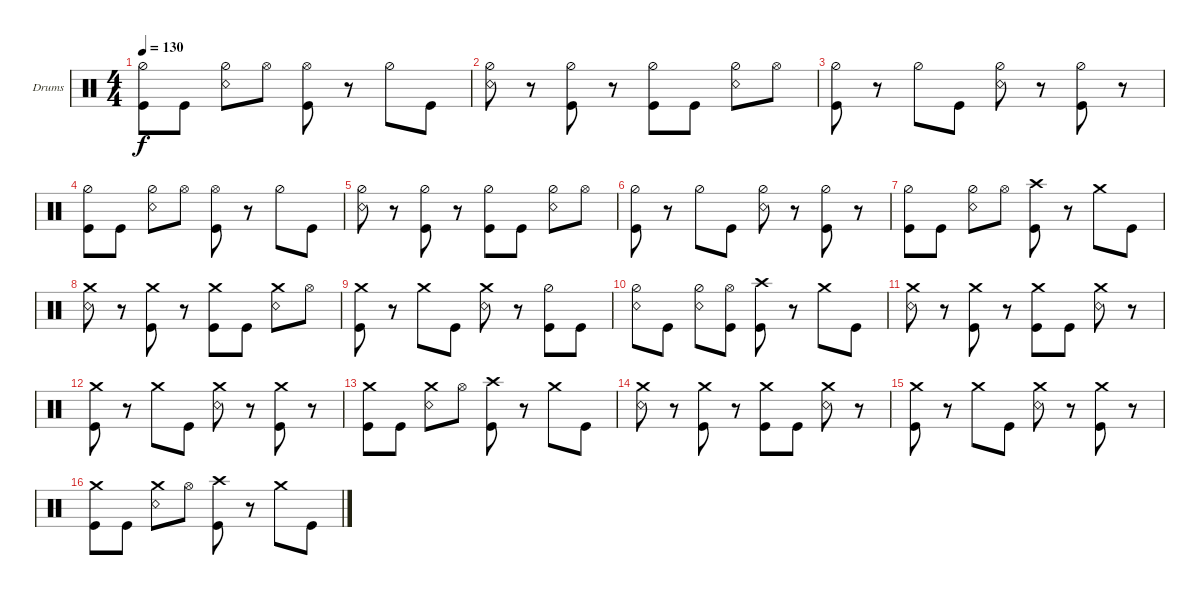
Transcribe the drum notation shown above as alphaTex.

\bracketExtendMode groupsimilarinstruments
\firstSystemTrackNameOrientation horizontal
\otherSystemsTrackNameOrientation horizontal
\track ("Drumkit" "Drums") {instrument percussion}
\staff {score}
\articulation defaults
\ts (4 4)
\tempo 130
\clef neutral
\scale
0.333333
\ks c
("Hi-Hat (half)" "Kick (hit)").8{dy f} "Kick (hit)".8 ("Hi-Hat (half)" "Snare (rim shot)").8 "Hi-Hat (open)".8 ("Hi-Hat (open)" "Kick (hit)").8 r.8 "Hi-Hat (half)".8 "Kick (hit)".8 |
\scale
0.333333 ("Hi-Hat (half)" "Snare (rim shot)").8 r.8 ("Hi-Hat (half)" "Kick (hit)").8 r.8 ("Hi-Hat (half)" "Kick (hit)").8 "Kick (hit)".8 ("Hi-Hat (half)" "Snare (rim shot)").8 "Hi-Hat (open)".8 |
\scale
0.333333 ("Kick (hit)" "Hi-Hat (half)").8 r.8 "Hi-Hat (half)".8 "Kick (hit)".8 ("Hi-Hat (half)" "Snare (rim shot)").8 r.8 ("Hi-Hat (half)" "Kick (hit)").8 r.8 |
\scale
0.333333 ("Hi-Hat (half)" "Kick (hit)").8 "Kick (hit)".8 ("Hi-Hat (half)" "Snare (rim shot)").8 "Hi-Hat (open)".8 ("Hi-Hat (open)" "Kick (hit)").8 r.8 "Hi-Hat (half)".8 "Kick (hit)".8 |
\scale
0.333333 ("Hi-Hat (half)" "Snare (rim shot)").8 r.8 ("Hi-Hat (half)" "Kick (hit)").8 r.8 ("Hi-Hat (half)" "Kick (hit)").8 "Kick (hit)".8 ("Hi-Hat (half)" "Snare (rim shot)").8 "Hi-Hat (open)".8 |
\scale
0.333333 ("Kick (hit)" "Hi-Hat (half)").8 r.8 "Hi-Hat (half)".8 "Kick (hit)".8 ("Hi-Hat (half)" "Snare (rim shot)").8 r.8 ("Hi-Hat (half)" "Kick (hit)").8 r.8 |
\scale
0.333333 ("Hi-Hat (half)" "Kick (hit)").8 "Kick (hit)".8 ("Hi-Hat (half)" "Snare (rim shot)").8 "Hi-Hat (open)".8 ("Kick (hit)" "Crash high (hit)").8 r.8 "Crash medium (hit)".8 "Kick (hit)".8 |
\scale
0.333333 ("Snare (rim shot)" "Crash medium (hit)").8 r.8 ("Kick (hit)" "Crash medium (hit)").8 r.8 ("Kick (hit)" "Crash medium (hit)").8 "Kick (hit)".8 ("Snare (rim shot)" "Crash medium (hit)").8 "Hi-Hat (open)".8 |
\scale
0.333333 ("Kick (hit)" "Crash medium (hit)").8 r.8 "Crash medium (hit)".8 "Kick (hit)".8 ("Snare (rim shot)" "Crash medium (hit)").8 r.8 ("Hi-Hat (half)" "Kick (hit)").8 "Kick (hit)".8 |
\scale
0.333333 ("Hi-Hat (half)" "Snare (rim shot)").8 "Kick (hit)".8 ("Hi-Hat (half)" "Snare (rim shot)").8 ("Hi-Hat (open)" "Kick (hit)").8 ("Kick (hit)" "Crash high (hit)").8 r.8 "Crash medium (hit)".8 "Kick (hit)".8 |
\scale
0.333333 ("Snare (rim shot)" "Crash medium (hit)").8 r.8 ("Kick (hit)" "Crash medium (hit)").8 r.8 ("Kick (hit)" "Crash medium (hit)").8 "Kick (hit)".8 ("Snare (rim shot)" "Crash medium (hit)").8 r.8 |
\scale
0.333333 ("Kick (hit)" "Crash medium (hit)").8 r.8 "Crash medium (hit)".8 "Kick (hit)".8 ("Snare (rim shot)" "Crash medium (hit)").8 r.8 ("Kick (hit)" "Crash medium (hit)").8 r.8 |
\scale
0.333333 ("Kick (hit)" "Crash medium (hit)").8 "Kick (hit)".8 ("Snare (rim shot)" "Crash medium (hit)").8 "Hi-Hat (open)".8 ("Kick (hit)" "Crash high (hit)").8 r.8 "Crash medium (hit)".8 "Kick (hit)".8 |
\scale
0.333333 ("Snare (rim shot)" "Crash medium (hit)").8 r.8 ("Kick (hit)" "Crash medium (hit)").8 r.8 ("Kick (hit)" "Crash medium (hit)").8 "Kick (hit)".8 ("Snare (rim shot)" "Crash medium (hit)").8 r.8 |
\scale
0.333333 ("Kick (hit)" "Crash medium (hit)").8 r.8 "Crash medium (hit)".8 "Kick (hit)".8 ("Snare (rim shot)" "Crash medium (hit)").8 r.8 ("Kick (hit)" "Crash medium (hit)").8 r.8 |
\scale
0.333333 ("Kick (hit)" "Crash medium (hit)").8 "Kick (hit)".8 ("Snare (rim shot)" "Crash medium (hit)").8 "Hi-Hat (open)".8 ("Kick (hit)" "Crash high (hit)").8 r.8 "Crash medium (hit)".8 "Kick (hit)".8
